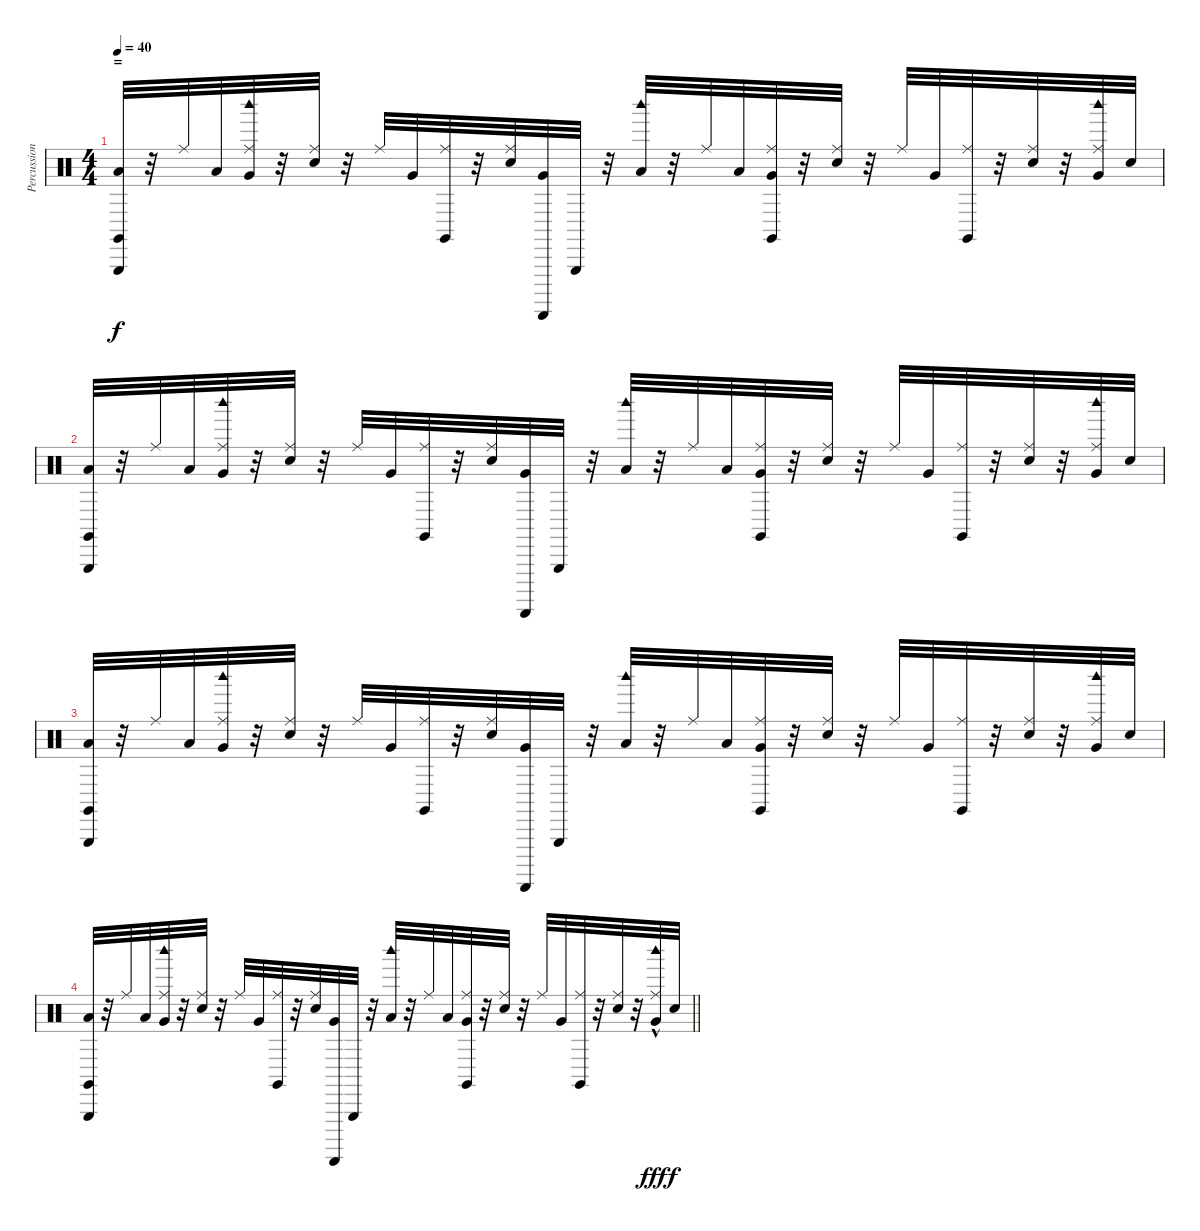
\track ("Percussion" "Percussion") {instrument percussion}
\staff {score}
\articulation defaults
\ts (4 4)
\section ("" "=")
\tempo 40
\clef neutral
\ks c
("Low Floor Tom (hit)" "Triangle (hit)" "Claves (hit)").32{dy f} r.32 "Ride (middle)".32 "Low Floor Tom (hit)".32 ("Very Low Tom (hit)" "Ride (middle)" "Woodblock high (hit)").32 r.32 ("Electric Snare (hit)" "Ride (middle)").32 r.32 "Ride (middle)".32 "Very Low Tom (hit)".32 ("Ride (middle)" "Claves (hit)").32 r.32 ("Electric Snare (hit)" "Ride (middle)").32 ("Very Low Tom (hit)" "Guiro (scrap-return)").32 "Triangle (hit)".32 r.32 ("Low Floor Tom (hit)" "Woodblock high (hit)").32 r.32 "Ride (middle)".32 "Low Floor Tom (hit)".32 ("Very Low Tom (hit)" "Ride (middle)" "Claves (hit)").32 r.32 ("Electric Snare (hit)" "Ride (middle)").32 r.32 "Ride (middle)".32 "Very Low Tom (hit)".32 ("Ride (middle)" "Claves (hit)").32 r.32 ("Electric Snare (hit)" "Ride (middle)").32 r.32 ("Very Low Tom (hit)" "Ride (middle)" "Woodblock high (hit)").32 "Electric Snare (hit)".32 |
("Low Floor Tom (hit)" "Triangle (hit)" "Claves (hit)").32 r.32 "Ride (middle)".32 "Low Floor Tom (hit)".32 ("Very Low Tom (hit)" "Ride (middle)" "Woodblock high (hit)").32 r.32 ("Electric Snare (hit)" "Ride (middle)").32 r.32 "Ride (middle)".32 "Very Low Tom (hit)".32 ("Ride (middle)" "Claves (hit)").32 r.32 ("Electric Snare (hit)" "Ride (middle)").32 ("Very Low Tom (hit)" "Guiro (scrap-return)").32 "Triangle (hit)".32 r.32 ("Low Floor Tom (hit)" "Woodblock high (hit)").32 r.32 "Ride (middle)".32 "Low Floor Tom (hit)".32 ("Very Low Tom (hit)" "Ride (middle)" "Claves (hit)").32 r.32 ("Electric Snare (hit)" "Ride (middle)").32 r.32 "Ride (middle)".32 "Very Low Tom (hit)".32 ("Ride (middle)" "Claves (hit)").32 r.32 ("Electric Snare (hit)" "Ride (middle)").32 r.32 ("Very Low Tom (hit)" "Ride (middle)" "Woodblock high (hit)").32 "Electric Snare (hit)".32 |
("Low Floor Tom (hit)" "Triangle (hit)" "Claves (hit)").32 r.32 "Ride (middle)".32 "Low Floor Tom (hit)".32 ("Very Low Tom (hit)" "Ride (middle)" "Woodblock high (hit)").32 r.32 ("Electric Snare (hit)" "Ride (middle)").32 r.32 "Ride (middle)".32 "Very Low Tom (hit)".32 ("Ride (middle)" "Claves (hit)").32 r.32 ("Electric Snare (hit)" "Ride (middle)").32 ("Very Low Tom (hit)" "Guiro (scrap-return)").32 "Triangle (hit)".32 r.32 ("Low Floor Tom (hit)" "Woodblock high (hit)").32 r.32 "Ride (middle)".32 "Low Floor Tom (hit)".32 ("Very Low Tom (hit)" "Ride (middle)" "Claves (hit)").32 r.32 ("Electric Snare (hit)" "Ride (middle)").32 r.32 "Ride (middle)".32 "Very Low Tom (hit)".32 ("Ride (middle)" "Claves (hit)").32 r.32 ("Electric Snare (hit)" "Ride (middle)").32 r.32 ("Very Low Tom (hit)" "Ride (middle)" "Woodblock high (hit)").32 "Electric Snare (hit)".32 |
\barLineRight lightlight
("Low Floor Tom (hit)" "Triangle (hit)" "Claves (hit)").32 r.32 "Ride (middle)".32 "Low Floor Tom (hit)".32 ("Very Low Tom (hit)" "Ride (middle)" "Woodblock high (hit)").32 r.32 ("Electric Snare (hit)" "Ride (middle)").32 r.32 "Ride (middle)".32 "Very Low Tom (hit)".32 ("Ride (middle)" "Claves (hit)").32 r.32 ("Electric Snare (hit)" "Ride (middle)").32 ("Very Low Tom (hit)" "Guiro (scrap-return)").32 "Triangle (hit)".32 r.32 ("Low Floor Tom (hit)" "Woodblock high (hit)").32 r.32 "Ride (middle)".32 "Low Floor Tom (hit)".32 ("Very Low Tom (hit)" "Ride (middle)" "Claves (hit)").32 r.32 ("Electric Snare (hit)" "Ride (middle)").32 r.32 "Ride (middle)".32 "Very Low Tom (hit)".32 ("Ride (middle)" "Claves (hit)").32 r.32 ("Electric Snare (hit)" "Ride (middle)").32 r.32 ("Very Low Tom (hit)" "Ride (middle)"{hac} "Woodblock high (hit)").32{dy fff} "Electric Snare (hit)".32{dy f}
